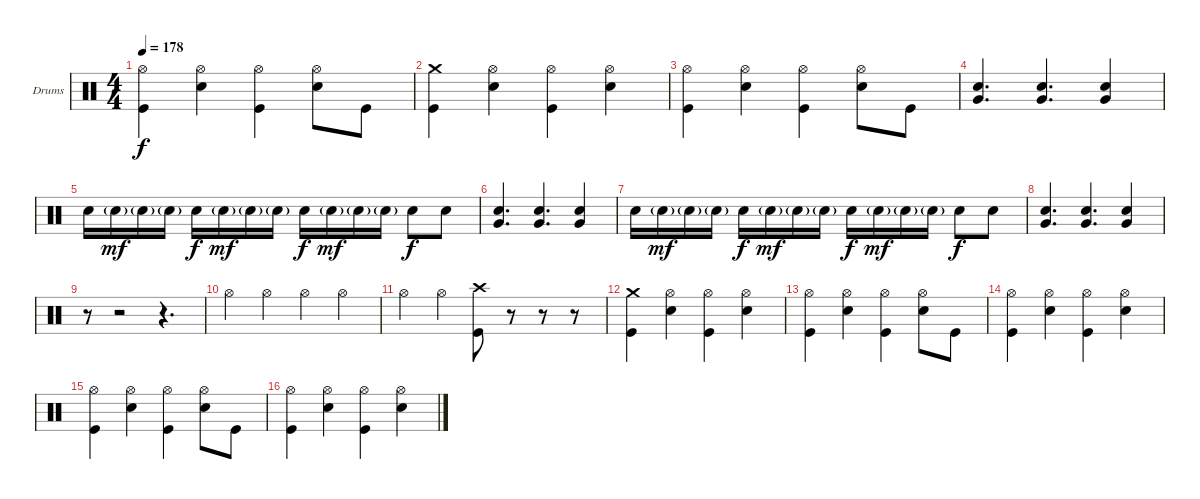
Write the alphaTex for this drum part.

\bracketExtendMode groupsimilarinstruments
\firstSystemTrackNameOrientation horizontal
\otherSystemsTrackNameOrientation horizontal
\track ("Drumkit" "Drums") {instrument percussion}
\staff {score}
\articulation defaults
\ts (4 4)
\tempo 178
\clef neutral
\ks c
("Hi-Hat (open)" "Kick (hit)").4{dy f} ("Hi-Hat (open)" "Snare (hit) 2").4 ("Hi-Hat (open)" "Kick (hit)").4 ("Hi-Hat (open)" "Snare (hit) 2").8 "Kick (hit)".8 |
("Crash medium (hit)" "Kick (hit)").4 ("Hi-Hat (open)" "Snare (hit) 2").4 ("Hi-Hat (open)" "Kick (hit)").4 ("Hi-Hat (open)" "Snare (hit) 2").4 |
("Hi-Hat (open)" "Kick (hit)").4 ("Hi-Hat (open)" "Snare (hit) 2").4 ("Hi-Hat (open)" "Kick (hit)").4 ("Hi-Hat (open)" "Snare (hit) 2").8 "Kick (hit)".8 |
("Snare (hit) 2" "Very Low Tom (hit)").4{d} ("Snare (hit) 2" "Very Low Tom (hit)").4{d} ("Snare (hit) 2" "Very Low Tom (hit)").4 |
"Snare (hit) 2".16 "Snare (hit) 2"{g}.16{dy mf} "Snare (hit) 2"{g}.16 "Snare (hit) 2"{g}.16 "Snare (hit) 2".16{dy f} "Snare (hit) 2"{g}.16{dy mf} "Snare (hit) 2"{g}.16 "Snare (hit) 2"{g}.16 "Snare (hit) 2".16{dy f} "Snare (hit) 2"{g}.16{dy mf} "Snare (hit) 2"{g}.16 "Snare (hit) 2"{g}.16 "Snare (hit) 2".8{dy f} "Snare (hit) 2".8 |
("Snare (hit) 2" "Very Low Tom (hit)").4{d} ("Snare (hit) 2" "Very Low Tom (hit)").4{d} ("Snare (hit) 2" "Very Low Tom (hit)").4 |
"Snare (hit) 2".16 "Snare (hit) 2"{g}.16{dy mf} "Snare (hit) 2"{g}.16 "Snare (hit) 2"{g}.16 "Snare (hit) 2".16{dy f} "Snare (hit) 2"{g}.16{dy mf} "Snare (hit) 2"{g}.16 "Snare (hit) 2"{g}.16 "Snare (hit) 2".16{dy f} "Snare (hit) 2"{g}.16{dy mf} "Snare (hit) 2"{g}.16 "Snare (hit) 2"{g}.16 "Snare (hit) 2".8{dy f} "Snare (hit) 2".8 |
("Snare (hit) 2" "Very Low Tom (hit)").4{d} ("Snare (hit) 2" "Very Low Tom (hit)").4{d} ("Snare (hit) 2" "Very Low Tom (hit)").4 |
r.8 r.2 r.4{d} |
"Hi-Hat (open)".4 "Hi-Hat (open)".4 "Hi-Hat (open)".4 "Hi-Hat (open)".4 |
"Hi-Hat (open)".4 "Hi-Hat (open)".4 ("Crash high (hit)" "Kick (hit)").8 r.8 r.8 r.8 |
("Crash medium (hit)" "Kick (hit)").4 ("Hi-Hat (open)" "Snare (hit) 2").4 ("Hi-Hat (open)" "Kick (hit)").4 ("Hi-Hat (open)" "Snare (hit) 2").4 |
("Hi-Hat (open)" "Kick (hit)").4 ("Hi-Hat (open)" "Snare (hit) 2").4 ("Hi-Hat (open)" "Kick (hit)").4 ("Hi-Hat (open)" "Snare (hit) 2").8 "Kick (hit)".8 |
("Hi-Hat (open)" "Kick (hit)").4 ("Hi-Hat (open)" "Snare (hit) 2").4 ("Hi-Hat (open)" "Kick (hit)").4 ("Hi-Hat (open)" "Snare (hit) 2").4 |
("Hi-Hat (open)" "Kick (hit)").4 ("Hi-Hat (open)" "Snare (hit) 2").4 ("Hi-Hat (open)" "Kick (hit)").4 ("Hi-Hat (open)" "Snare (hit) 2").8 "Kick (hit)".8 |
("Hi-Hat (open)" "Kick (hit)").4 ("Hi-Hat (open)" "Snare (hit) 2").4 ("Hi-Hat (open)" "Kick (hit)").4 ("Hi-Hat (open)" "Snare (hit) 2").4
